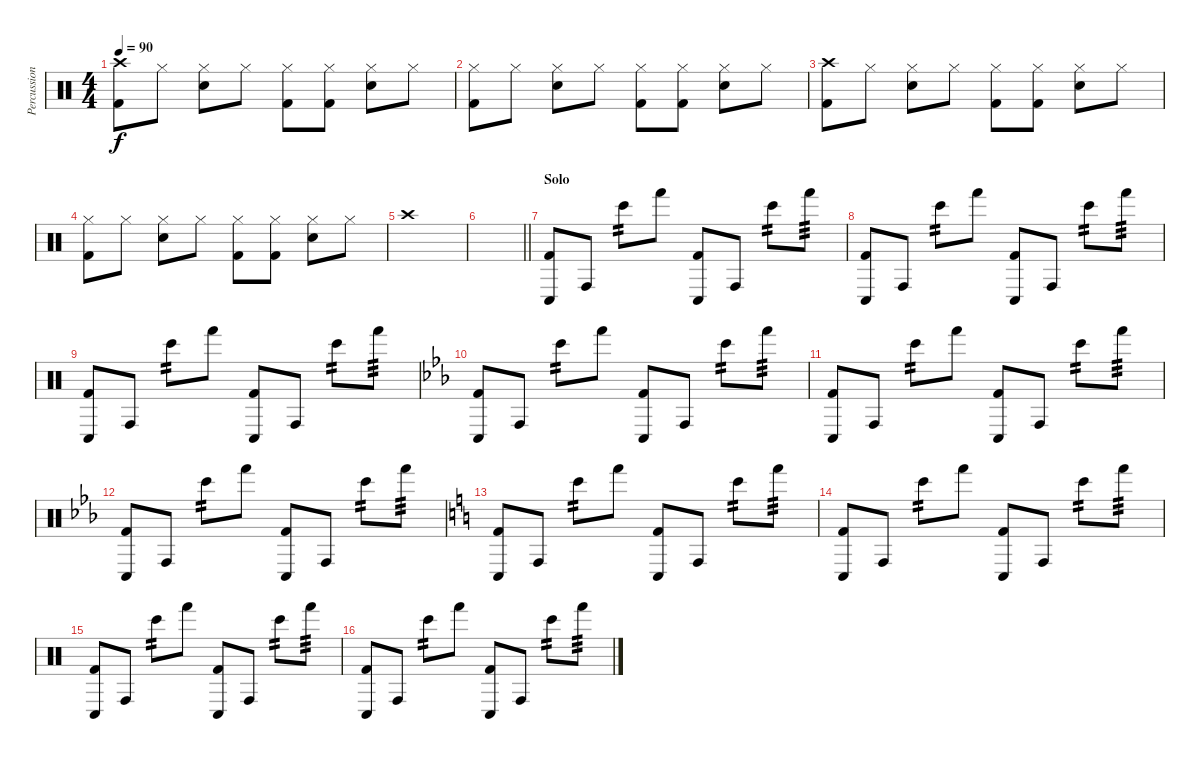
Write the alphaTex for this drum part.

\track ("Percussion" "Percussion") {instrument percussion}
\staff {score}
\articulation defaults
\ts (4 4)
\tempo 90
\clef neutral
\ks c
("Crash high (hit)" "Kick (hit) 2").8{dy f} "Hi-Hat (closed)".8 ("Hi-Hat (closed)" "Snare (hit) 2").8 "Hi-Hat (closed)".8 ("Hi-Hat (closed)" "Kick (hit) 2").8 ("Hi-Hat (closed)" "Kick (hit) 2").8 ("Hi-Hat (closed)" "Snare (hit) 2").8 "Hi-Hat (closed)".8 |
("Hi-Hat (closed)" "Kick (hit) 2").8 "Hi-Hat (closed)".8 ("Hi-Hat (closed)" "Snare (hit) 2").8 "Hi-Hat (closed)".8 ("Hi-Hat (closed)" "Kick (hit) 2").8 ("Hi-Hat (closed)" "Kick (hit) 2").8 ("Hi-Hat (closed)" "Snare (hit) 2").8 "Hi-Hat (closed)".8 |
("Crash high (hit)" "Kick (hit) 2").8 "Hi-Hat (closed)".8 ("Hi-Hat (closed)" "Snare (hit) 2").8 "Hi-Hat (closed)".8 ("Hi-Hat (closed)" "Kick (hit) 2").8 ("Hi-Hat (closed)" "Kick (hit) 2").8 ("Hi-Hat (closed)" "Snare (hit) 2").8 "Hi-Hat (closed)".8 |
("Hi-Hat (closed)" "Kick (hit) 2").8 "Hi-Hat (closed)".8 ("Hi-Hat (closed)" "Snare (hit) 2").8 "Hi-Hat (closed)".8 ("Hi-Hat (closed)" "Kick (hit) 2").8 ("Hi-Hat (closed)" "Kick (hit) 2").8 ("Hi-Hat (closed)" "Snare (hit) 2").8 "Hi-Hat (closed)".8 |
"Crash high (hit)".1 |
\barLineRight lightlight
|
\section ("" "Solo")
("Conga low (hit)" "Kick (hit) 2").8 "Conga high (hit)".8 "Bongo High (hit)".8{tp 2} "Hand (hit)".8 ("Conga low (hit)" "Kick (hit) 2").8 "Conga high (hit)".8 "Bongo High (hit)".8{tp 2} "Hand (hit)".8{tp 3} |
("Conga low (hit)" "Kick (hit) 2").8 "Conga high (hit)".8 "Bongo High (hit)".8{tp 2} "Hand (hit)".8 ("Conga low (hit)" "Kick (hit) 2").8 "Conga high (hit)".8 "Bongo High (hit)".8{tp 2} "Hand (hit)".8{tp 3} |
("Conga low (hit)" "Kick (hit) 2").8 "Conga high (hit)".8 "Bongo High (hit)".8{tp 2} "Hand (hit)".8 ("Conga low (hit)" "Kick (hit) 2").8 "Conga high (hit)".8 "Bongo High (hit)".8{tp 2} "Hand (hit)".8{tp 3} |
\ks eb
("Conga low (hit)" "Kick (hit) 2").8 "Conga high (hit)".8 "Bongo High (hit)".8{tp 2} "Hand (hit)".8 ("Conga low (hit)" "Kick (hit) 2").8 "Conga high (hit)".8 "Bongo High (hit)".8{tp 2} "Hand (hit)".8{tp 3} |
("Conga low (hit)" "Kick (hit) 2").8 "Conga high (hit)".8 "Bongo High (hit)".8{tp 2} "Hand (hit)".8 ("Conga low (hit)" "Kick (hit) 2").8 "Conga high (hit)".8 "Bongo High (hit)".8{tp 2} "Hand (hit)".8{tp 3} |
("Conga low (hit)" "Kick (hit) 2").8 "Conga high (hit)".8 "Bongo High (hit)".8{tp 2} "Hand (hit)".8 ("Conga low (hit)" "Kick (hit) 2").8 "Conga high (hit)".8 "Bongo High (hit)".8{tp 2} "Hand (hit)".8{tp 3} |
\ks c
("Conga low (hit)" "Kick (hit) 2").8 "Conga high (hit)".8 "Bongo High (hit)".8{tp 2} "Hand (hit)".8 ("Conga low (hit)" "Kick (hit) 2").8 "Conga high (hit)".8 "Bongo High (hit)".8{tp 2} "Hand (hit)".8{tp 3} |
("Conga low (hit)" "Kick (hit) 2").8 "Conga high (hit)".8 "Bongo High (hit)".8{tp 2} "Hand (hit)".8 ("Conga low (hit)" "Kick (hit) 2").8 "Conga high (hit)".8 "Bongo High (hit)".8{tp 2} "Hand (hit)".8{tp 3} |
("Conga low (hit)" "Kick (hit) 2").8 "Conga high (hit)".8 "Bongo High (hit)".8{tp 2} "Hand (hit)".8 ("Conga low (hit)" "Kick (hit) 2").8 "Conga high (hit)".8 "Bongo High (hit)".8{tp 2} "Hand (hit)".8{tp 3} |
("Conga low (hit)" "Kick (hit) 2").8 "Conga high (hit)".8 "Bongo High (hit)".8{tp 2} "Hand (hit)".8 ("Conga low (hit)" "Kick (hit) 2").8 "Conga high (hit)".8 "Bongo High (hit)".8{tp 2} "Hand (hit)".8{tp 3}
